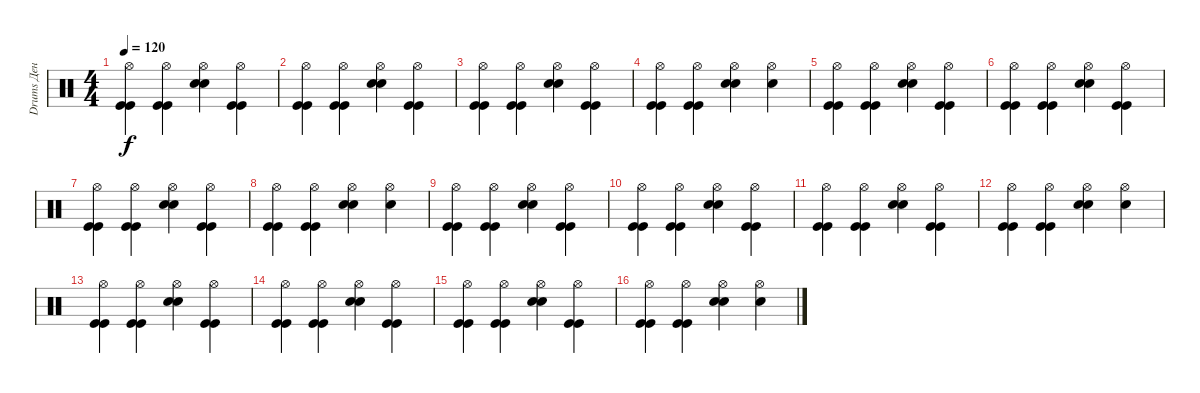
\track ("Drums Ден" "Drums Ден") {instrument percussion}
\staff {score}
\articulation defaults
\ts (4 4)
\tempo 120
\clef neutral
\ks c
("Hi-Hat (open)" "Kick (hit)" "Kick (hit)").4{dy f} ("Hi-Hat (open)" "Kick (hit)" "Kick (hit)").4 ("Hi-Hat (open)" "Electric Snare (hit)" "Electric Snare (hit)").4 ("Hi-Hat (open)" "Kick (hit)" "Kick (hit)").4 |
("Hi-Hat (open)" "Kick (hit)" "Kick (hit)").4 ("Hi-Hat (open)" "Kick (hit)" "Kick (hit)").4 ("Hi-Hat (open)" "Electric Snare (hit)" "Electric Snare (hit)").4 ("Hi-Hat (open)" "Kick (hit)" "Kick (hit)").4 |
("Hi-Hat (open)" "Kick (hit)" "Kick (hit)").4 ("Hi-Hat (open)" "Kick (hit)" "Kick (hit)").4 ("Hi-Hat (open)" "Electric Snare (hit)" "Electric Snare (hit)").4 ("Hi-Hat (open)" "Kick (hit)" "Kick (hit)").4 |
("Hi-Hat (open)" "Kick (hit)" "Kick (hit)").4 ("Hi-Hat (open)" "Kick (hit)" "Kick (hit)").4 ("Hi-Hat (open)" "Electric Snare (hit)" "Electric Snare (hit)").4 ("Hi-Hat (open)" "Electric Snare (hit)").4 |
("Hi-Hat (open)" "Kick (hit)" "Kick (hit)").4 ("Hi-Hat (open)" "Kick (hit)" "Kick (hit)").4 ("Hi-Hat (open)" "Electric Snare (hit)" "Electric Snare (hit)").4 ("Hi-Hat (open)" "Kick (hit)" "Kick (hit)").4 |
("Hi-Hat (open)" "Kick (hit)" "Kick (hit)").4 ("Hi-Hat (open)" "Kick (hit)" "Kick (hit)").4 ("Hi-Hat (open)" "Electric Snare (hit)" "Electric Snare (hit)").4 ("Hi-Hat (open)" "Kick (hit)" "Kick (hit)").4 |
("Hi-Hat (open)" "Kick (hit)" "Kick (hit)").4 ("Hi-Hat (open)" "Kick (hit)" "Kick (hit)").4 ("Hi-Hat (open)" "Electric Snare (hit)" "Electric Snare (hit)").4 ("Hi-Hat (open)" "Kick (hit)" "Kick (hit)").4 |
("Hi-Hat (open)" "Kick (hit)" "Kick (hit)").4 ("Hi-Hat (open)" "Kick (hit)" "Kick (hit)").4 ("Hi-Hat (open)" "Electric Snare (hit)" "Electric Snare (hit)").4 ("Hi-Hat (open)" "Electric Snare (hit)").4 |
("Hi-Hat (open)" "Kick (hit)" "Kick (hit)").4 ("Hi-Hat (open)" "Kick (hit)" "Kick (hit)").4 ("Hi-Hat (open)" "Electric Snare (hit)" "Electric Snare (hit)").4 ("Hi-Hat (open)" "Kick (hit)" "Kick (hit)").4 |
("Hi-Hat (open)" "Kick (hit)" "Kick (hit)").4 ("Hi-Hat (open)" "Kick (hit)" "Kick (hit)").4 ("Hi-Hat (open)" "Electric Snare (hit)" "Electric Snare (hit)").4 ("Hi-Hat (open)" "Kick (hit)" "Kick (hit)").4 |
("Hi-Hat (open)" "Kick (hit)" "Kick (hit)").4 ("Hi-Hat (open)" "Kick (hit)" "Kick (hit)").4 ("Hi-Hat (open)" "Electric Snare (hit)" "Electric Snare (hit)").4 ("Hi-Hat (open)" "Kick (hit)" "Kick (hit)").4 |
("Hi-Hat (open)" "Kick (hit)" "Kick (hit)").4 ("Hi-Hat (open)" "Kick (hit)" "Kick (hit)").4 ("Hi-Hat (open)" "Electric Snare (hit)" "Electric Snare (hit)").4 ("Hi-Hat (open)" "Electric Snare (hit)").4 |
("Hi-Hat (open)" "Kick (hit)" "Kick (hit)").4 ("Hi-Hat (open)" "Kick (hit)" "Kick (hit)").4 ("Hi-Hat (open)" "Electric Snare (hit)" "Electric Snare (hit)").4 ("Hi-Hat (open)" "Kick (hit)" "Kick (hit)").4 |
("Hi-Hat (open)" "Kick (hit)" "Kick (hit)").4 ("Hi-Hat (open)" "Kick (hit)" "Kick (hit)").4 ("Hi-Hat (open)" "Electric Snare (hit)" "Electric Snare (hit)").4 ("Hi-Hat (open)" "Kick (hit)" "Kick (hit)").4 |
("Hi-Hat (open)" "Kick (hit)" "Kick (hit)").4 ("Hi-Hat (open)" "Kick (hit)" "Kick (hit)").4 ("Hi-Hat (open)" "Electric Snare (hit)" "Electric Snare (hit)").4 ("Hi-Hat (open)" "Kick (hit)" "Kick (hit)").4 |
("Hi-Hat (open)" "Kick (hit)" "Kick (hit)").4 ("Hi-Hat (open)" "Kick (hit)" "Kick (hit)").4 ("Hi-Hat (open)" "Electric Snare (hit)" "Electric Snare (hit)").4 ("Hi-Hat (open)" "Electric Snare (hit)").4
